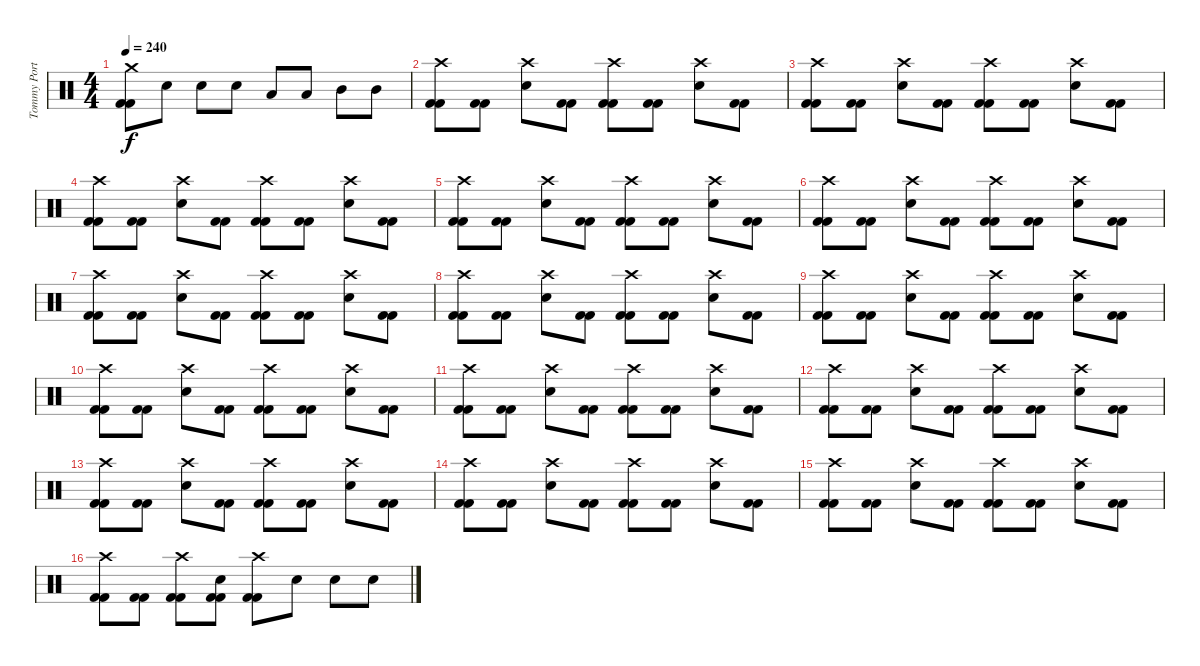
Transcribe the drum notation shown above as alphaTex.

\track ("Tommy Portimo " "Tommy Port") {instrument percussion}
\staff {score}
\articulation defaults
\ts (4 4)
\tempo 240
\clef neutral
\ks c
("Crash medium (hit)" "Kick (hit) 2" "Kick (hit) 2").8{dy f} "Electric Snare (hit)".8 "Electric Snare (hit)".8 "Electric Snare (hit)".8 "Low Tom (hit)".8 "Low Tom (hit)".8 "Mid Tom (hit)".8 "Mid Tom (hit)".8 |
("Crash high (hit)" "Kick (hit) 2" "Kick (hit) 2").8 ("Kick (hit) 2" "Kick (hit) 2").8 ("Crash high (hit)" "Electric Snare (hit)").8 ("Kick (hit) 2" "Kick (hit) 2").8 ("Crash high (hit)" "Kick (hit) 2" "Kick (hit) 2").8 ("Kick (hit) 2" "Kick (hit) 2").8 ("Crash high (hit)" "Electric Snare (hit)").8 ("Kick (hit) 2" "Kick (hit) 2").8 |
("Crash high (hit)" "Kick (hit) 2" "Kick (hit) 2").8 ("Kick (hit) 2" "Kick (hit) 2").8 ("Crash high (hit)" "Electric Snare (hit)").8 ("Kick (hit) 2" "Kick (hit) 2").8 ("Crash high (hit)" "Kick (hit) 2" "Kick (hit) 2").8 ("Kick (hit) 2" "Kick (hit) 2").8 ("Crash high (hit)" "Electric Snare (hit)").8 ("Kick (hit) 2" "Kick (hit) 2").8 |
("Crash high (hit)" "Kick (hit) 2" "Kick (hit) 2").8 ("Kick (hit) 2" "Kick (hit) 2").8 ("Crash high (hit)" "Electric Snare (hit)").8 ("Kick (hit) 2" "Kick (hit) 2").8 ("Crash high (hit)" "Kick (hit) 2" "Kick (hit) 2").8 ("Kick (hit) 2" "Kick (hit) 2").8 ("Crash high (hit)" "Electric Snare (hit)").8 ("Kick (hit) 2" "Kick (hit) 2").8 |
("Crash high (hit)" "Kick (hit) 2" "Kick (hit) 2").8 ("Kick (hit) 2" "Kick (hit) 2").8 ("Crash high (hit)" "Electric Snare (hit)").8 ("Kick (hit) 2" "Kick (hit) 2").8 ("Crash high (hit)" "Kick (hit) 2" "Kick (hit) 2").8 ("Kick (hit) 2" "Kick (hit) 2").8 ("Crash high (hit)" "Electric Snare (hit)").8 ("Kick (hit) 2" "Kick (hit) 2").8 |
("Crash high (hit)" "Kick (hit) 2" "Kick (hit) 2").8 ("Kick (hit) 2" "Kick (hit) 2").8 ("Crash high (hit)" "Electric Snare (hit)").8 ("Kick (hit) 2" "Kick (hit) 2").8 ("Crash high (hit)" "Kick (hit) 2" "Kick (hit) 2").8 ("Kick (hit) 2" "Kick (hit) 2").8 ("Crash high (hit)" "Electric Snare (hit)").8 ("Kick (hit) 2" "Kick (hit) 2").8 |
("Crash high (hit)" "Kick (hit) 2" "Kick (hit) 2").8 ("Kick (hit) 2" "Kick (hit) 2").8 ("Crash high (hit)" "Electric Snare (hit)").8 ("Kick (hit) 2" "Kick (hit) 2").8 ("Crash high (hit)" "Kick (hit) 2" "Kick (hit) 2").8 ("Kick (hit) 2" "Kick (hit) 2").8 ("Crash high (hit)" "Electric Snare (hit)").8 ("Kick (hit) 2" "Kick (hit) 2").8 |
("Crash high (hit)" "Kick (hit) 2" "Kick (hit) 2").8 ("Kick (hit) 2" "Kick (hit) 2").8 ("Crash high (hit)" "Electric Snare (hit)").8 ("Kick (hit) 2" "Kick (hit) 2").8 ("Crash high (hit)" "Kick (hit) 2" "Kick (hit) 2").8 ("Kick (hit) 2" "Kick (hit) 2").8 ("Crash high (hit)" "Electric Snare (hit)").8 ("Kick (hit) 2" "Kick (hit) 2").8 |
("Crash high (hit)" "Kick (hit) 2" "Kick (hit) 2").8 ("Kick (hit) 2" "Kick (hit) 2").8 ("Crash high (hit)" "Electric Snare (hit)").8 ("Kick (hit) 2" "Kick (hit) 2").8 ("Crash high (hit)" "Kick (hit) 2" "Kick (hit) 2").8 ("Kick (hit) 2" "Kick (hit) 2").8 ("Crash high (hit)" "Electric Snare (hit)").8 ("Kick (hit) 2" "Kick (hit) 2").8 |
("Crash high (hit)" "Kick (hit) 2" "Kick (hit) 2").8 ("Kick (hit) 2" "Kick (hit) 2").8 ("Crash high (hit)" "Electric Snare (hit)").8 ("Kick (hit) 2" "Kick (hit) 2").8 ("Crash high (hit)" "Kick (hit) 2" "Kick (hit) 2").8 ("Kick (hit) 2" "Kick (hit) 2").8 ("Crash high (hit)" "Electric Snare (hit)").8 ("Kick (hit) 2" "Kick (hit) 2").8 |
("Crash high (hit)" "Kick (hit) 2" "Kick (hit) 2").8 ("Kick (hit) 2" "Kick (hit) 2").8 ("Crash high (hit)" "Electric Snare (hit)").8 ("Kick (hit) 2" "Kick (hit) 2").8 ("Crash high (hit)" "Kick (hit) 2" "Kick (hit) 2").8 ("Kick (hit) 2" "Kick (hit) 2").8 ("Crash high (hit)" "Electric Snare (hit)").8 ("Kick (hit) 2" "Kick (hit) 2").8 |
("Crash high (hit)" "Kick (hit) 2" "Kick (hit) 2").8 ("Kick (hit) 2" "Kick (hit) 2").8 ("Crash high (hit)" "Electric Snare (hit)").8 ("Kick (hit) 2" "Kick (hit) 2").8 ("Crash high (hit)" "Kick (hit) 2" "Kick (hit) 2").8 ("Kick (hit) 2" "Kick (hit) 2").8 ("Crash high (hit)" "Electric Snare (hit)").8 ("Kick (hit) 2" "Kick (hit) 2").8 |
("Crash high (hit)" "Kick (hit) 2" "Kick (hit) 2").8 ("Kick (hit) 2" "Kick (hit) 2").8 ("Crash high (hit)" "Electric Snare (hit)").8 ("Kick (hit) 2" "Kick (hit) 2").8 ("Crash high (hit)" "Kick (hit) 2" "Kick (hit) 2").8 ("Kick (hit) 2" "Kick (hit) 2").8 ("Crash high (hit)" "Electric Snare (hit)").8 ("Kick (hit) 2" "Kick (hit) 2").8 |
("Crash high (hit)" "Kick (hit) 2" "Kick (hit) 2").8 ("Kick (hit) 2" "Kick (hit) 2").8 ("Crash high (hit)" "Electric Snare (hit)").8 ("Kick (hit) 2" "Kick (hit) 2").8 ("Crash high (hit)" "Kick (hit) 2" "Kick (hit) 2").8 ("Kick (hit) 2" "Kick (hit) 2").8 ("Crash high (hit)" "Electric Snare (hit)").8 ("Kick (hit) 2" "Kick (hit) 2").8 |
("Crash high (hit)" "Kick (hit) 2" "Kick (hit) 2").8 ("Kick (hit) 2" "Kick (hit) 2").8 ("Crash high (hit)" "Electric Snare (hit)").8 ("Kick (hit) 2" "Kick (hit) 2").8 ("Crash high (hit)" "Kick (hit) 2" "Kick (hit) 2").8 ("Kick (hit) 2" "Kick (hit) 2").8 ("Crash high (hit)" "Electric Snare (hit)").8 ("Kick (hit) 2" "Kick (hit) 2").8 |
("Crash high (hit)" "Kick (hit) 2" "Kick (hit) 2").8 ("Kick (hit) 2" "Kick (hit) 2").8 ("Crash high (hit)" "Kick (hit) 2" "Kick (hit) 2").8 ("Electric Snare (hit)" "Kick (hit) 2" "Kick (hit) 2").8 ("Crash high (hit)" "Kick (hit) 2" "Kick (hit) 2").8 "Electric Snare (hit)".8 "Electric Snare (hit)".8 "Electric Snare (hit)".8
